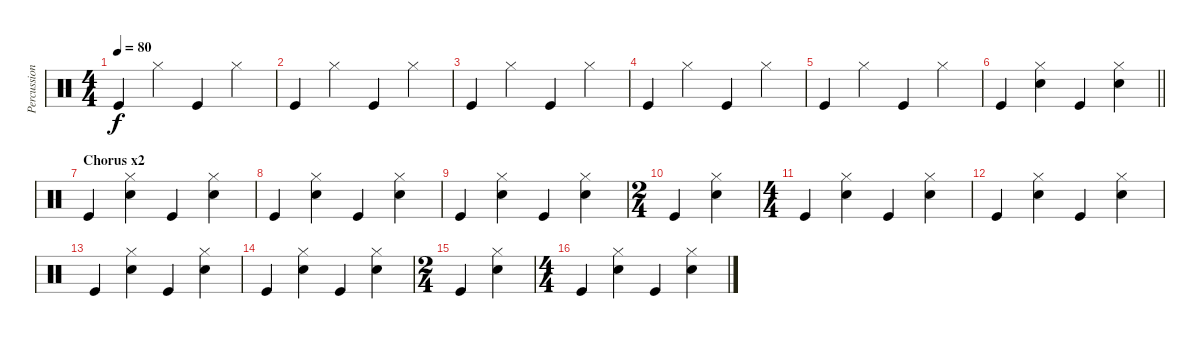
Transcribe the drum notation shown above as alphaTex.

\track ("Percussion" "Percussion") {instrument percussion}
\staff {score}
\articulation defaults
\ts (4 4)
\tempo 80
\clef neutral
\ks c "Kick (hit)".4{dy f} "Hi-Hat (closed)".4 "Kick (hit)".4 "Hi-Hat (closed)".4
|
"Kick (hit)".4 "Hi-Hat (closed)".4 "Kick (hit)".4 "Hi-Hat (closed)".4 |
"Kick (hit)".4 "Hi-Hat (closed)".4 "Kick (hit)".4 "Hi-Hat (closed)".4 |
"Kick (hit)".4 "Hi-Hat (closed)".4 "Kick (hit)".4 "Hi-Hat (closed)".4 |
"Kick (hit)".4 "Hi-Hat (closed)".4 "Kick (hit)".4 "Hi-Hat (closed)".4 |
\barLineRight lightlight "Kick (hit)".4
("Hi-Hat (closed)" "Snare (hit) 2").4 "Kick (hit)".4 ("Hi-Hat (closed)" "Snare (hit) 2").4 |
\section ("" "Chorus x2")
"Kick (hit)".4 ("Hi-Hat (closed)" "Snare (hit) 2").4 "Kick (hit)".4 ("Hi-Hat (closed)" "Snare (hit) 2").4 |
"Kick (hit)".4 ("Hi-Hat (closed)" "Snare (hit) 2").4 "Kick (hit)".4 ("Hi-Hat (closed)" "Snare (hit) 2").4 |
"Kick (hit)".4 ("Hi-Hat (closed)" "Snare (hit) 2").4 "Kick (hit)".4 ("Hi-Hat (closed)" "Snare (hit) 2").4 |
\ts (2 4)
"Kick (hit)".4 ("Hi-Hat (closed)" "Snare (hit) 2").4 |
\ts (4 4)
"Kick (hit)".4 ("Hi-Hat (closed)" "Snare (hit) 2").4 "Kick (hit)".4 ("Hi-Hat (closed)" "Snare (hit) 2").4 |
"Kick (hit)".4 ("Hi-Hat (closed)" "Snare (hit) 2").4 "Kick (hit)".4 ("Hi-Hat (closed)" "Snare (hit) 2").4 |
"Kick (hit)".4 ("Hi-Hat (closed)" "Snare (hit) 2").4 "Kick (hit)".4 ("Hi-Hat (closed)" "Snare (hit) 2").4 |
"Kick (hit)".4 ("Hi-Hat (closed)" "Snare (hit) 2").4 "Kick (hit)".4 ("Hi-Hat (closed)" "Snare (hit) 2").4 |
\ts (2 4)
"Kick (hit)".4 ("Hi-Hat (closed)" "Snare (hit) 2").4 |
\ts (4 4)
"Kick (hit)".4 ("Hi-Hat (closed)" "Snare (hit) 2").4 "Kick (hit)".4 ("Hi-Hat (closed)" "Snare (hit) 2").4
